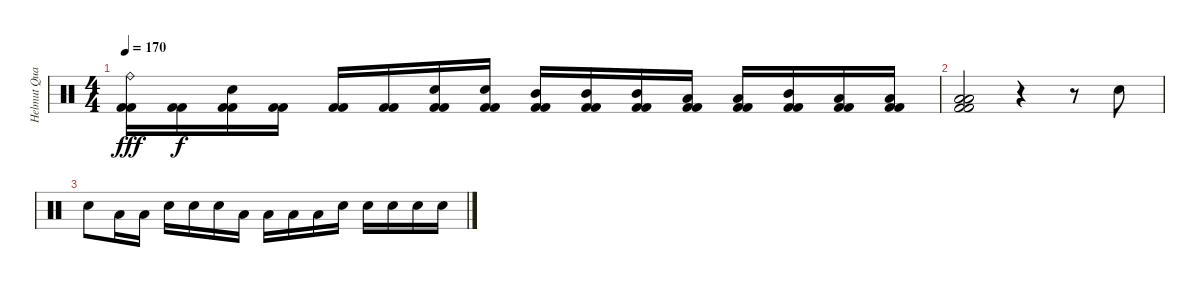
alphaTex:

\track ("Helmut Quacken" "Helmut Qua") {instrument percussion}
\staff {score}
\articulation defaults
\ts (4 4)
\tempo 170
\clef neutral
\ks c
("Ride (bell)" "Kick (hit) 2" "Kick (hit) 2").16{dy fff} ("Kick (hit) 2" "Kick (hit) 2").16{dy f} ("Electric Snare (hit)" "Kick (hit) 2" "Kick (hit) 2").16 ("Kick (hit) 2" "Kick (hit) 2").16 ("Kick (hit) 2" "Kick (hit) 2").16 ("Kick (hit) 2" "Kick (hit) 2").16 ("Electric Snare (hit)" "Kick (hit) 2" "Kick (hit) 2").16 ("Electric Snare (hit)" "Kick (hit) 2" "Kick (hit) 2").16 ("Mid Tom (hit)" "Kick (hit) 2" "Kick (hit) 2").16 ("Mid Tom (hit)" "Kick (hit) 2" "Kick (hit) 2").16 ("Mid Tom (hit)" "Kick (hit) 2" "Kick (hit) 2").16 ("Low Tom (hit)" "Kick (hit) 2" "Kick (hit) 2").16 ("Low Tom (hit)" "Kick (hit) 2" "Kick (hit) 2").16 ("Mid Tom (hit)" "Kick (hit) 2" "Kick (hit) 2").16 ("Low Tom (hit)" "Kick (hit) 2" "Kick (hit) 2").16 ("Low Tom (hit)" "Kick (hit) 2" "Kick (hit) 2").16 |
("Low Tom (hit)" "Low Tom (hit)" "Kick (hit) 2" "Kick (hit) 2").2 r.4 r.8 "Electric Snare (hit)".8 |
"Electric Snare (hit)".8 "Low Tom (hit)".16 "Low Tom (hit)".16 "Electric Snare (hit)".16 "Electric Snare (hit)".16 "Electric Snare (hit)".16 "Low Tom (hit)".16 "Low Tom (hit)".16 "Low Tom (hit)".16 "Low Tom (hit)".16 "Electric Snare (hit)".16 "Electric Snare (hit)".16 "Electric Snare (hit)".16 "Electric Snare (hit)".16 "Electric Snare (hit)".16
